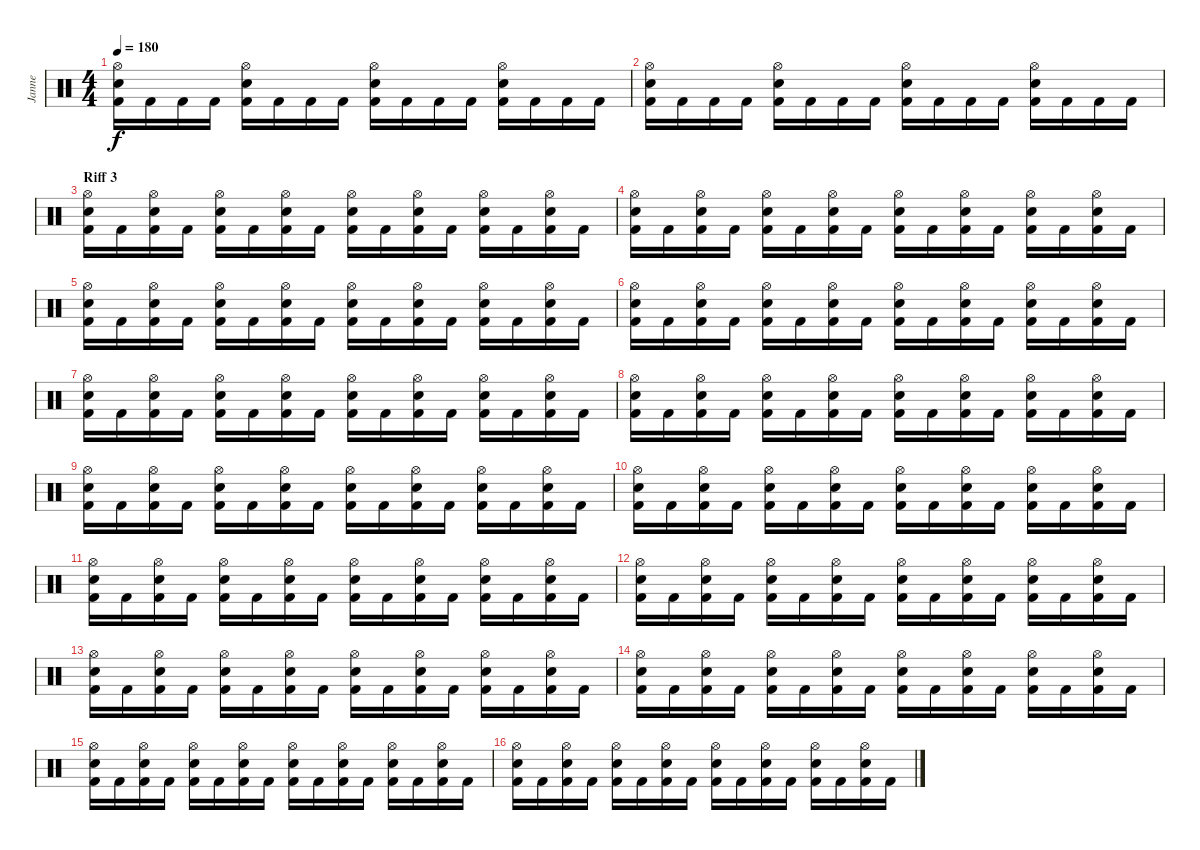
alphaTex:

\track ("Janne" "Janne") {instrument percussion}
\staff {score}
\articulation defaults
\ts (4 4)
\tempo 180
\clef neutral
\ks c
("Hi-Hat (open)" "Electric Snare (hit)" "Kick (hit) 2").16{dy f} "Kick (hit) 2".16 "Kick (hit) 2".16 "Kick (hit) 2".16 ("Hi-Hat (open)" "Electric Snare (hit)" "Kick (hit) 2").16 "Kick (hit) 2".16 "Kick (hit) 2".16 "Kick (hit) 2".16 ("Hi-Hat (open)" "Electric Snare (hit)" "Kick (hit) 2").16 "Kick (hit) 2".16 "Kick (hit) 2".16 "Kick (hit) 2".16 ("Hi-Hat (open)" "Electric Snare (hit)" "Kick (hit) 2").16 "Kick (hit) 2".16 "Kick (hit) 2".16 "Kick (hit) 2".16 |
("Hi-Hat (open)" "Electric Snare (hit)" "Kick (hit) 2").16 "Kick (hit) 2".16 "Kick (hit) 2".16 "Kick (hit) 2".16 ("Hi-Hat (open)" "Electric Snare (hit)" "Kick (hit) 2").16 "Kick (hit) 2".16 "Kick (hit) 2".16 "Kick (hit) 2".16 ("Hi-Hat (open)" "Electric Snare (hit)" "Kick (hit) 2").16 "Kick (hit) 2".16 "Kick (hit) 2".16 "Kick (hit) 2".16 ("Hi-Hat (open)" "Electric Snare (hit)" "Kick (hit) 2").16 "Kick (hit) 2".16 "Kick (hit) 2".16 "Kick (hit) 2".16 |
\section ("" "Riff 3")
("Hi-Hat (open)" "Electric Snare (hit)" "Kick (hit) 2").16 "Kick (hit) 2".16 ("Hi-Hat (open)" "Electric Snare (hit)" "Kick (hit) 2").16 "Kick (hit) 2".16 ("Hi-Hat (open)" "Electric Snare (hit)" "Kick (hit) 2").16 "Kick (hit) 2".16 ("Hi-Hat (open)" "Electric Snare (hit)" "Kick (hit) 2").16 "Kick (hit) 2".16 ("Hi-Hat (open)" "Electric Snare (hit)" "Kick (hit) 2").16 "Kick (hit) 2".16 ("Hi-Hat (open)" "Electric Snare (hit)" "Kick (hit) 2").16 "Kick (hit) 2".16 ("Hi-Hat (open)" "Electric Snare (hit)" "Kick (hit) 2").16 "Kick (hit) 2".16 ("Hi-Hat (open)" "Electric Snare (hit)" "Kick (hit) 2").16 "Kick (hit) 2".16 |
("Hi-Hat (open)" "Electric Snare (hit)" "Kick (hit) 2").16 "Kick (hit) 2".16 ("Hi-Hat (open)" "Electric Snare (hit)" "Kick (hit) 2").16 "Kick (hit) 2".16 ("Hi-Hat (open)" "Electric Snare (hit)" "Kick (hit) 2").16 "Kick (hit) 2".16 ("Hi-Hat (open)" "Electric Snare (hit)" "Kick (hit) 2").16 "Kick (hit) 2".16 ("Hi-Hat (open)" "Electric Snare (hit)" "Kick (hit) 2").16 "Kick (hit) 2".16 ("Hi-Hat (open)" "Electric Snare (hit)" "Kick (hit) 2").16 "Kick (hit) 2".16 ("Hi-Hat (open)" "Electric Snare (hit)" "Kick (hit) 2").16 "Kick (hit) 2".16 ("Hi-Hat (open)" "Electric Snare (hit)" "Kick (hit) 2").16 "Kick (hit) 2".16 |
("Hi-Hat (open)" "Electric Snare (hit)" "Kick (hit) 2").16 "Kick (hit) 2".16 ("Hi-Hat (open)" "Electric Snare (hit)" "Kick (hit) 2").16 "Kick (hit) 2".16 ("Hi-Hat (open)" "Electric Snare (hit)" "Kick (hit) 2").16 "Kick (hit) 2".16 ("Hi-Hat (open)" "Electric Snare (hit)" "Kick (hit) 2").16 "Kick (hit) 2".16 ("Hi-Hat (open)" "Electric Snare (hit)" "Kick (hit) 2").16 "Kick (hit) 2".16 ("Hi-Hat (open)" "Electric Snare (hit)" "Kick (hit) 2").16 "Kick (hit) 2".16 ("Hi-Hat (open)" "Electric Snare (hit)" "Kick (hit) 2").16 "Kick (hit) 2".16 ("Hi-Hat (open)" "Electric Snare (hit)" "Kick (hit) 2").16 "Kick (hit) 2".16 |
("Hi-Hat (open)" "Electric Snare (hit)" "Kick (hit) 2").16 "Kick (hit) 2".16 ("Hi-Hat (open)" "Electric Snare (hit)" "Kick (hit) 2").16 "Kick (hit) 2".16 ("Hi-Hat (open)" "Electric Snare (hit)" "Kick (hit) 2").16 "Kick (hit) 2".16 ("Hi-Hat (open)" "Electric Snare (hit)" "Kick (hit) 2").16 "Kick (hit) 2".16 ("Hi-Hat (open)" "Electric Snare (hit)" "Kick (hit) 2").16 "Kick (hit) 2".16 ("Hi-Hat (open)" "Electric Snare (hit)" "Kick (hit) 2").16 "Kick (hit) 2".16 ("Hi-Hat (open)" "Electric Snare (hit)" "Kick (hit) 2").16 "Kick (hit) 2".16 ("Hi-Hat (open)" "Electric Snare (hit)" "Kick (hit) 2").16 "Kick (hit) 2".16 |
("Hi-Hat (open)" "Electric Snare (hit)" "Kick (hit) 2").16 "Kick (hit) 2".16 ("Hi-Hat (open)" "Electric Snare (hit)" "Kick (hit) 2").16 "Kick (hit) 2".16 ("Hi-Hat (open)" "Electric Snare (hit)" "Kick (hit) 2").16 "Kick (hit) 2".16 ("Hi-Hat (open)" "Electric Snare (hit)" "Kick (hit) 2").16 "Kick (hit) 2".16 ("Hi-Hat (open)" "Electric Snare (hit)" "Kick (hit) 2").16 "Kick (hit) 2".16 ("Hi-Hat (open)" "Electric Snare (hit)" "Kick (hit) 2").16 "Kick (hit) 2".16 ("Hi-Hat (open)" "Electric Snare (hit)" "Kick (hit) 2").16 "Kick (hit) 2".16 ("Hi-Hat (open)" "Electric Snare (hit)" "Kick (hit) 2").16 "Kick (hit) 2".16 |
("Hi-Hat (open)" "Electric Snare (hit)" "Kick (hit) 2").16 "Kick (hit) 2".16 ("Hi-Hat (open)" "Electric Snare (hit)" "Kick (hit) 2").16 "Kick (hit) 2".16 ("Hi-Hat (open)" "Electric Snare (hit)" "Kick (hit) 2").16 "Kick (hit) 2".16 ("Hi-Hat (open)" "Electric Snare (hit)" "Kick (hit) 2").16 "Kick (hit) 2".16 ("Hi-Hat (open)" "Electric Snare (hit)" "Kick (hit) 2").16 "Kick (hit) 2".16 ("Hi-Hat (open)" "Electric Snare (hit)" "Kick (hit) 2").16 "Kick (hit) 2".16 ("Hi-Hat (open)" "Electric Snare (hit)" "Kick (hit) 2").16 "Kick (hit) 2".16 ("Hi-Hat (open)" "Electric Snare (hit)" "Kick (hit) 2").16 "Kick (hit) 2".16 |
("Hi-Hat (open)" "Electric Snare (hit)" "Kick (hit) 2").16 "Kick (hit) 2".16 ("Hi-Hat (open)" "Electric Snare (hit)" "Kick (hit) 2").16 "Kick (hit) 2".16 ("Hi-Hat (open)" "Electric Snare (hit)" "Kick (hit) 2").16 "Kick (hit) 2".16 ("Hi-Hat (open)" "Electric Snare (hit)" "Kick (hit) 2").16 "Kick (hit) 2".16 ("Hi-Hat (open)" "Electric Snare (hit)" "Kick (hit) 2").16 "Kick (hit) 2".16 ("Hi-Hat (open)" "Electric Snare (hit)" "Kick (hit) 2").16 "Kick (hit) 2".16 ("Hi-Hat (open)" "Electric Snare (hit)" "Kick (hit) 2").16 "Kick (hit) 2".16 ("Hi-Hat (open)" "Electric Snare (hit)" "Kick (hit) 2").16 "Kick (hit) 2".16 |
("Hi-Hat (open)" "Electric Snare (hit)" "Kick (hit) 2").16 "Kick (hit) 2".16 ("Hi-Hat (open)" "Electric Snare (hit)" "Kick (hit) 2").16 "Kick (hit) 2".16 ("Hi-Hat (open)" "Electric Snare (hit)" "Kick (hit) 2").16 "Kick (hit) 2".16 ("Hi-Hat (open)" "Electric Snare (hit)" "Kick (hit) 2").16 "Kick (hit) 2".16 ("Hi-Hat (open)" "Electric Snare (hit)" "Kick (hit) 2").16 "Kick (hit) 2".16 ("Hi-Hat (open)" "Electric Snare (hit)" "Kick (hit) 2").16 "Kick (hit) 2".16 ("Hi-Hat (open)" "Electric Snare (hit)" "Kick (hit) 2").16 "Kick (hit) 2".16 ("Hi-Hat (open)" "Electric Snare (hit)" "Kick (hit) 2").16 "Kick (hit) 2".16 |
("Hi-Hat (open)" "Electric Snare (hit)" "Kick (hit) 2").16 "Kick (hit) 2".16 ("Hi-Hat (open)" "Electric Snare (hit)" "Kick (hit) 2").16 "Kick (hit) 2".16 ("Hi-Hat (open)" "Electric Snare (hit)" "Kick (hit) 2").16 "Kick (hit) 2".16 ("Hi-Hat (open)" "Electric Snare (hit)" "Kick (hit) 2").16 "Kick (hit) 2".16 ("Hi-Hat (open)" "Electric Snare (hit)" "Kick (hit) 2").16 "Kick (hit) 2".16 ("Hi-Hat (open)" "Electric Snare (hit)" "Kick (hit) 2").16 "Kick (hit) 2".16 ("Hi-Hat (open)" "Electric Snare (hit)" "Kick (hit) 2").16 "Kick (hit) 2".16 ("Hi-Hat (open)" "Electric Snare (hit)" "Kick (hit) 2").16 "Kick (hit) 2".16 |
("Hi-Hat (open)" "Electric Snare (hit)" "Kick (hit) 2").16 "Kick (hit) 2".16 ("Hi-Hat (open)" "Electric Snare (hit)" "Kick (hit) 2").16 "Kick (hit) 2".16 ("Hi-Hat (open)" "Electric Snare (hit)" "Kick (hit) 2").16 "Kick (hit) 2".16 ("Hi-Hat (open)" "Electric Snare (hit)" "Kick (hit) 2").16 "Kick (hit) 2".16 ("Hi-Hat (open)" "Electric Snare (hit)" "Kick (hit) 2").16 "Kick (hit) 2".16 ("Hi-Hat (open)" "Electric Snare (hit)" "Kick (hit) 2").16 "Kick (hit) 2".16 ("Hi-Hat (open)" "Electric Snare (hit)" "Kick (hit) 2").16 "Kick (hit) 2".16 ("Hi-Hat (open)" "Electric Snare (hit)" "Kick (hit) 2").16 "Kick (hit) 2".16 |
("Hi-Hat (open)" "Electric Snare (hit)" "Kick (hit) 2").16 "Kick (hit) 2".16 ("Hi-Hat (open)" "Electric Snare (hit)" "Kick (hit) 2").16 "Kick (hit) 2".16 ("Hi-Hat (open)" "Electric Snare (hit)" "Kick (hit) 2").16 "Kick (hit) 2".16 ("Hi-Hat (open)" "Electric Snare (hit)" "Kick (hit) 2").16 "Kick (hit) 2".16 ("Hi-Hat (open)" "Electric Snare (hit)" "Kick (hit) 2").16 "Kick (hit) 2".16 ("Hi-Hat (open)" "Electric Snare (hit)" "Kick (hit) 2").16 "Kick (hit) 2".16 ("Hi-Hat (open)" "Electric Snare (hit)" "Kick (hit) 2").16 "Kick (hit) 2".16 ("Hi-Hat (open)" "Electric Snare (hit)" "Kick (hit) 2").16 "Kick (hit) 2".16 |
("Hi-Hat (open)" "Electric Snare (hit)" "Kick (hit) 2").16 "Kick (hit) 2".16 ("Hi-Hat (open)" "Electric Snare (hit)" "Kick (hit) 2").16 "Kick (hit) 2".16 ("Hi-Hat (open)" "Electric Snare (hit)" "Kick (hit) 2").16 "Kick (hit) 2".16 ("Hi-Hat (open)" "Electric Snare (hit)" "Kick (hit) 2").16 "Kick (hit) 2".16 ("Hi-Hat (open)" "Electric Snare (hit)" "Kick (hit) 2").16 "Kick (hit) 2".16 ("Hi-Hat (open)" "Electric Snare (hit)" "Kick (hit) 2").16 "Kick (hit) 2".16 ("Hi-Hat (open)" "Electric Snare (hit)" "Kick (hit) 2").16 "Kick (hit) 2".16 ("Hi-Hat (open)" "Electric Snare (hit)" "Kick (hit) 2").16 "Kick (hit) 2".16 |
("Hi-Hat (open)" "Electric Snare (hit)" "Kick (hit) 2").16 "Kick (hit) 2".16 ("Hi-Hat (open)" "Electric Snare (hit)" "Kick (hit) 2").16 "Kick (hit) 2".16 ("Hi-Hat (open)" "Electric Snare (hit)" "Kick (hit) 2").16 "Kick (hit) 2".16 ("Hi-Hat (open)" "Electric Snare (hit)" "Kick (hit) 2").16 "Kick (hit) 2".16 ("Hi-Hat (open)" "Electric Snare (hit)" "Kick (hit) 2").16 "Kick (hit) 2".16 ("Hi-Hat (open)" "Electric Snare (hit)" "Kick (hit) 2").16 "Kick (hit) 2".16 ("Hi-Hat (open)" "Electric Snare (hit)" "Kick (hit) 2").16 "Kick (hit) 2".16 ("Hi-Hat (open)" "Electric Snare (hit)" "Kick (hit) 2").16 "Kick (hit) 2".16 |
("Hi-Hat (open)" "Electric Snare (hit)" "Kick (hit) 2").16 "Kick (hit) 2".16 ("Hi-Hat (open)" "Electric Snare (hit)" "Kick (hit) 2").16 "Kick (hit) 2".16 ("Hi-Hat (open)" "Electric Snare (hit)" "Kick (hit) 2").16 "Kick (hit) 2".16 ("Hi-Hat (open)" "Electric Snare (hit)" "Kick (hit) 2").16 "Kick (hit) 2".16 ("Hi-Hat (open)" "Electric Snare (hit)" "Kick (hit) 2").16 "Kick (hit) 2".16 ("Hi-Hat (open)" "Electric Snare (hit)" "Kick (hit) 2").16 "Kick (hit) 2".16 ("Hi-Hat (open)" "Electric Snare (hit)" "Kick (hit) 2").16 "Kick (hit) 2".16 ("Hi-Hat (open)" "Electric Snare (hit)" "Kick (hit) 2").16 "Kick (hit) 2".16
